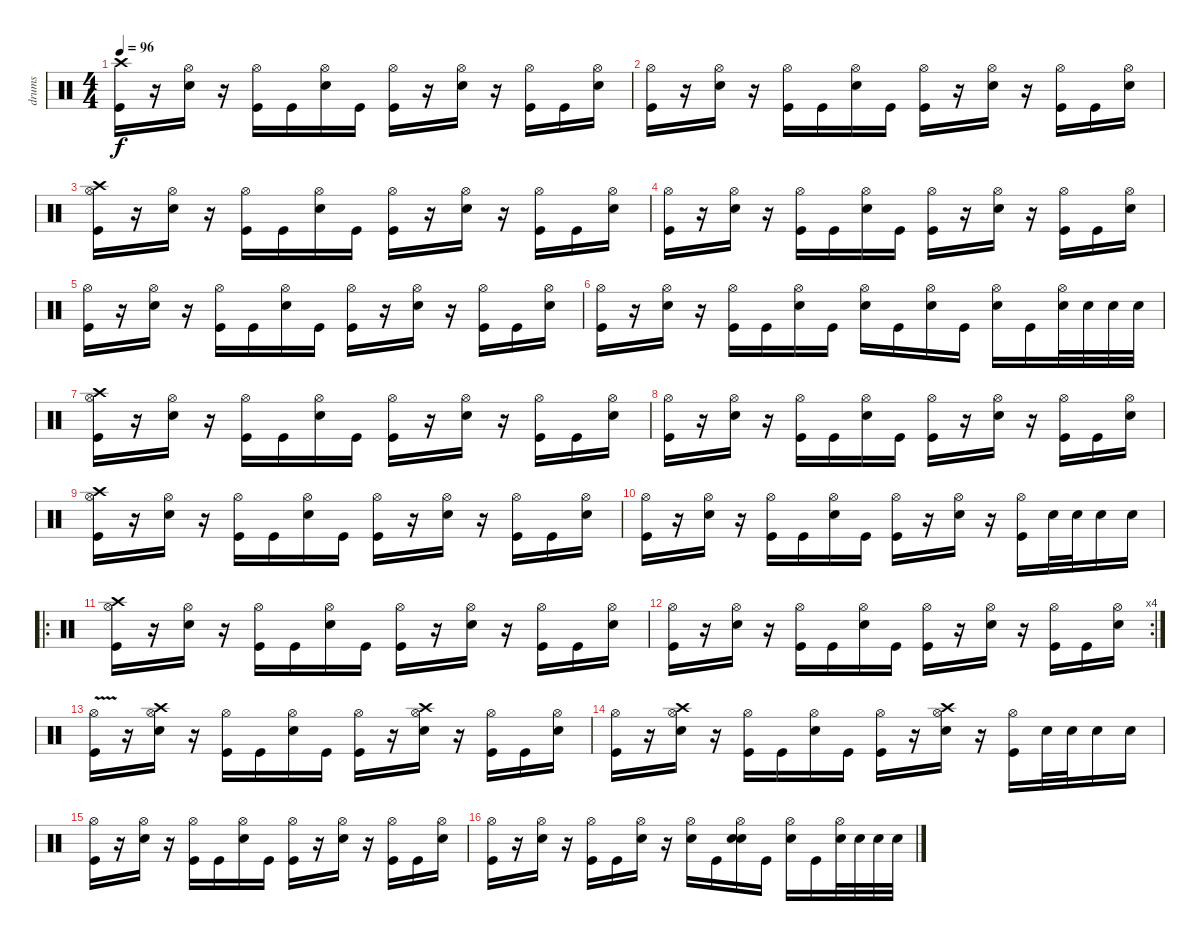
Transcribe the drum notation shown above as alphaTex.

\track ("drums" "drums") {instrument percussion}
\staff {score}
\articulation defaults
\ts (4 4)
\tempo 96
\clef neutral
\ks c
("Crash high (hit)" "Kick (hit)").16{dy f} r.16 ("Hi-Hat (open)" "Electric Snare (hit)").16 r.16 ("Hi-Hat (open)" "Kick (hit)").16 "Kick (hit)".16 ("Hi-Hat (open)" "Electric Snare (hit)").16 "Kick (hit)".16 ("Hi-Hat (open)" "Kick (hit)").16 r.16 ("Hi-Hat (open)" "Electric Snare (hit)").16 r.16 ("Hi-Hat (open)" "Kick (hit)").16 "Kick (hit)".16 ("Hi-Hat (open)" "Electric Snare (hit)").16 |
("Hi-Hat (open)" "Kick (hit)").16 r.16 ("Hi-Hat (open)" "Electric Snare (hit)").16 r.16 ("Hi-Hat (open)" "Kick (hit)").16 "Kick (hit)".16 ("Hi-Hat (open)" "Electric Snare (hit)").16 "Kick (hit)".16 ("Hi-Hat (open)" "Kick (hit)").16 r.16 ("Hi-Hat (open)" "Electric Snare (hit)").16 r.16 ("Hi-Hat (open)" "Kick (hit)").16 "Kick (hit)".16 ("Hi-Hat (open)" "Electric Snare (hit)").16 |
("Crash high (hit)" "Hi-Hat (open)" "Kick (hit)").16 r.16 ("Hi-Hat (open)" "Electric Snare (hit)").16 r.16 ("Hi-Hat (open)" "Kick (hit)").16 "Kick (hit)".16 ("Hi-Hat (open)" "Electric Snare (hit)").16 "Kick (hit)".16 ("Hi-Hat (open)" "Kick (hit)").16 r.16 ("Hi-Hat (open)" "Electric Snare (hit)").16 r.16 ("Hi-Hat (open)" "Kick (hit)").16 "Kick (hit)".16 ("Hi-Hat (open)" "Electric Snare (hit)").16 |
("Hi-Hat (open)" "Kick (hit)").16 r.16 ("Hi-Hat (open)" "Electric Snare (hit)").16 r.16 ("Hi-Hat (open)" "Kick (hit)").16 "Kick (hit)".16 ("Hi-Hat (open)" "Electric Snare (hit)").16 "Kick (hit)".16 ("Hi-Hat (open)" "Kick (hit)").16 r.16 ("Hi-Hat (open)" "Electric Snare (hit)").16 r.16 ("Hi-Hat (open)" "Kick (hit)").16 "Kick (hit)".16 ("Hi-Hat (open)" "Electric Snare (hit)").16 |
("Hi-Hat (open)" "Kick (hit)").16 r.16 ("Hi-Hat (open)" "Electric Snare (hit)").16 r.16 ("Hi-Hat (open)" "Kick (hit)").16 "Kick (hit)".16 ("Hi-Hat (open)" "Electric Snare (hit)").16 "Kick (hit)".16 ("Hi-Hat (open)" "Kick (hit)").16 r.16 ("Hi-Hat (open)" "Electric Snare (hit)").16 r.16 ("Hi-Hat (open)" "Kick (hit)").16 "Kick (hit)".16 ("Hi-Hat (open)" "Electric Snare (hit)").16 |
("Hi-Hat (open)" "Kick (hit)").16 r.16 ("Hi-Hat (open)" "Electric Snare (hit)").16 r.16 ("Hi-Hat (open)" "Kick (hit)").16 "Kick (hit)".16 ("Hi-Hat (open)" "Electric Snare (hit)").16 "Kick (hit)".16 ("Hi-Hat (open)" "Electric Snare (hit)").16 "Kick (hit)".16 ("Hi-Hat (open)" "Electric Snare (hit)").16 "Kick (hit)".16 ("Hi-Hat (open)" "Electric Snare (hit)").16 "Kick (hit)".16 ("Hi-Hat (open)" "Electric Snare (hit)").32 "Electric Snare (hit)".32 "Electric Snare (hit)".32 "Electric Snare (hit)".32 |
("Crash high (hit)" "Hi-Hat (open)" "Kick (hit)").16 r.16 ("Hi-Hat (open)" "Electric Snare (hit)").16 r.16 ("Hi-Hat (open)" "Kick (hit)").16 "Kick (hit)".16 ("Hi-Hat (open)" "Electric Snare (hit)").16 "Kick (hit)".16 ("Hi-Hat (open)" "Kick (hit)").16 r.16 ("Hi-Hat (open)" "Electric Snare (hit)").16 r.16 ("Hi-Hat (open)" "Kick (hit)").16 "Kick (hit)".16 ("Hi-Hat (open)" "Electric Snare (hit)").16 |
("Hi-Hat (open)" "Kick (hit)").16 r.16 ("Hi-Hat (open)" "Electric Snare (hit)").16 r.16 ("Hi-Hat (open)" "Kick (hit)").16 "Kick (hit)".16 ("Hi-Hat (open)" "Electric Snare (hit)").16 "Kick (hit)".16 ("Hi-Hat (open)" "Kick (hit)").16 r.16 ("Hi-Hat (open)" "Electric Snare (hit)").16 r.16 ("Hi-Hat (open)" "Kick (hit)").16 "Kick (hit)".16 ("Hi-Hat (open)" "Electric Snare (hit)").16 |
("Crash high (hit)" "Hi-Hat (open)" "Kick (hit)").16 r.16 ("Hi-Hat (open)" "Electric Snare (hit)").16 r.16 ("Hi-Hat (open)" "Kick (hit)").16 "Kick (hit)".16 ("Hi-Hat (open)" "Electric Snare (hit)").16 "Kick (hit)".16 ("Hi-Hat (open)" "Kick (hit)").16 r.16 ("Hi-Hat (open)" "Electric Snare (hit)").16 r.16 ("Hi-Hat (open)" "Kick (hit)").16 "Kick (hit)".16 ("Hi-Hat (open)" "Electric Snare (hit)").16 |
("Hi-Hat (open)" "Kick (hit)").16 r.16 ("Hi-Hat (open)" "Electric Snare (hit)").16 r.16 ("Hi-Hat (open)" "Kick (hit)").16 "Kick (hit)".16 ("Hi-Hat (open)" "Electric Snare (hit)").16 "Kick (hit)".16 ("Hi-Hat (open)" "Kick (hit)").16 r.16 ("Hi-Hat (open)" "Electric Snare (hit)").16 r.16 ("Hi-Hat (open)" "Kick (hit)").16 "Electric Snare (hit)".32 "Electric Snare (hit)".32 "Electric Snare (hit)".16 "Electric Snare (hit)".16 |
\ro
("Crash high (hit)" "Hi-Hat (open)" "Kick (hit)").16 r.16 ("Hi-Hat (open)" "Electric Snare (hit)").16 r.16 ("Hi-Hat (open)" "Kick (hit)").16 "Kick (hit)".16 ("Hi-Hat (open)" "Electric Snare (hit)").16 "Kick (hit)".16 ("Hi-Hat (open)" "Kick (hit)").16 r.16 ("Hi-Hat (open)" "Electric Snare (hit)").16 r.16 ("Hi-Hat (open)" "Kick (hit)").16 "Kick (hit)".16 ("Hi-Hat (open)" "Electric Snare (hit)").16 |
\rc 4
("Hi-Hat (open)" "Kick (hit)").16 r.16 ("Hi-Hat (open)" "Electric Snare (hit)").16 r.16 ("Hi-Hat (open)" "Kick (hit)").16 "Kick (hit)".16 ("Hi-Hat (open)" "Electric Snare (hit)").16 "Kick (hit)".16 ("Hi-Hat (open)" "Kick (hit)").16 r.16 ("Hi-Hat (open)" "Electric Snare (hit)").16 r.16 ("Hi-Hat (open)" "Kick (hit)").16 "Kick (hit)".16 ("Hi-Hat (open)" "Electric Snare (hit)").16 |
("Hi-Hat (open)"{v} "Kick (hit)").16 r.16 ("Crash high (hit)" "Hi-Hat (open)" "Electric Snare (hit)").16 r.16 ("Hi-Hat (open)" "Kick (hit)").16 "Kick (hit)".16 ("Hi-Hat (open)" "Electric Snare (hit)").16 "Kick (hit)".16 ("Hi-Hat (open)" "Kick (hit)").16 r.16 ("Crash high (hit)" "Hi-Hat (open)" "Electric Snare (hit)").16 r.16 ("Hi-Hat (open)" "Kick (hit)").16 "Kick (hit)".16 ("Hi-Hat (open)" "Electric Snare (hit)").16 |
("Hi-Hat (open)" "Kick (hit)").16 r.16 ("Crash high (hit)" "Hi-Hat (open)" "Electric Snare (hit)").16 r.16 ("Hi-Hat (open)" "Kick (hit)").16 "Kick (hit)".16 ("Hi-Hat (open)" "Electric Snare (hit)").16 "Kick (hit)".16 ("Hi-Hat (open)" "Kick (hit)").16 r.16 ("Crash high (hit)" "Hi-Hat (open)" "Electric Snare (hit)").16 r.16 ("Hi-Hat (open)" "Kick (hit)").16 "Electric Snare (hit)".32 "Electric Snare (hit)".32 "Electric Snare (hit)".16 "Electric Snare (hit)".16 |
("Hi-Hat (open)" "Kick (hit)").16 r.16 ("Hi-Hat (open)" "Electric Snare (hit)").16 r.16 ("Hi-Hat (open)" "Kick (hit)").16 "Kick (hit)".16 ("Hi-Hat (open)" "Electric Snare (hit)").16 "Kick (hit)".16 ("Hi-Hat (open)" "Kick (hit)").16 r.16 ("Hi-Hat (open)" "Electric Snare (hit)").16 r.16 ("Hi-Hat (open)" "Kick (hit)").16 "Kick (hit)".16 ("Hi-Hat (open)" "Electric Snare (hit)").16 |
("Hi-Hat (open)" "Kick (hit)").16 r.16 ("Hi-Hat (open)" "Electric Snare (hit)").16 r.16 ("Hi-Hat (open)" "Kick (hit)").16 "Kick (hit)".16 ("Hi-Hat (open)" "Electric Snare (hit)").16 r.16 ("Hi-Hat (open)" "Electric Snare (hit)").16 "Kick (hit)".16 ("Hi-Hat (open)" "Electric Snare (hit)" "Electric Snare (hit)").16 "Kick (hit)".16 ("Hi-Hat (open)" "Electric Snare (hit)").16 "Kick (hit)".16 ("Hi-Hat (open)" "Electric Snare (hit)").32 "Electric Snare (hit)".32 "Electric Snare (hit)".32 "Electric Snare (hit)".32
